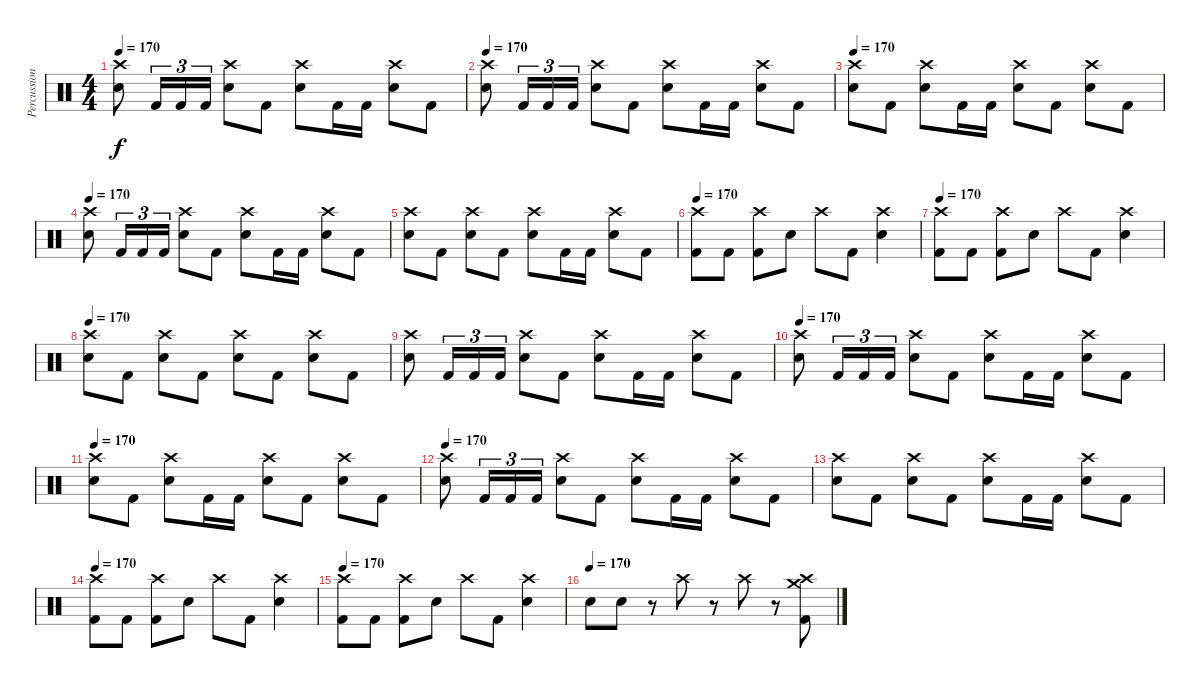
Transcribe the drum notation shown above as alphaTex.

\track ("Percussion" "Percussion") {instrument percussion}
\staff {score}
\articulation defaults
\ts (4 4)
\tempo 170
\clef neutral
\ks c
("Crash high (hit)" "Electric Snare (hit)").8{dy f} "Kick (hit) 2".16{tu (3 2)} "Kick (hit) 2".16{tu (3 2)} "Kick (hit) 2".16{tu (3 2)} ("Crash high (hit)" "Electric Snare (hit)").8 "Kick (hit) 2".8 ("Crash high (hit)" "Electric Snare (hit)").8 "Kick (hit) 2".16 "Kick (hit) 2".16 ("Crash high (hit)" "Electric Snare (hit)").8 "Kick (hit) 2".8 |
\tempo 170
("Crash high (hit)" "Electric Snare (hit)").8 "Kick (hit) 2".16{tu (3 2)} "Kick (hit) 2".16{tu (3 2)} "Kick (hit) 2".16{tu (3 2)} ("Crash high (hit)" "Electric Snare (hit)").8 "Kick (hit) 2".8 ("Crash high (hit)" "Electric Snare (hit)").8 "Kick (hit) 2".16 "Kick (hit) 2".16 ("Crash high (hit)" "Electric Snare (hit)").8 "Kick (hit) 2".8 |
\tempo 170
("Crash high (hit)" "Electric Snare (hit)").8 "Kick (hit) 2".8 ("Crash high (hit)" "Electric Snare (hit)").8 "Kick (hit) 2".16 "Kick (hit) 2".16 ("Crash high (hit)" "Electric Snare (hit)").8 "Kick (hit) 2".8 ("Crash high (hit)" "Electric Snare (hit)").8 "Kick (hit) 2".8 |
\tempo 170
("Crash high (hit)" "Electric Snare (hit)").8 "Kick (hit) 2".16{tu (3 2)} "Kick (hit) 2".16{tu (3 2)} "Kick (hit) 2".16{tu (3 2)} ("Crash high (hit)" "Electric Snare (hit)").8 "Kick (hit) 2".8 ("Crash high (hit)" "Electric Snare (hit)").8 "Kick (hit) 2".16 "Kick (hit) 2".16 ("Crash high (hit)" "Electric Snare (hit)").8 "Kick (hit) 2".8 |
("Crash high (hit)" "Electric Snare (hit)").8 "Kick (hit) 2".8 ("Crash high (hit)" "Electric Snare (hit)").8 "Kick (hit) 2".8 ("Crash high (hit)" "Electric Snare (hit)").8 "Kick (hit) 2".16 "Kick (hit) 2".16 ("Crash high (hit)" "Electric Snare (hit)").8 "Kick (hit) 2".8 |
\tempo 170
("Crash high (hit)" "Kick (hit) 2").8 "Kick (hit) 2".8 ("Crash high (hit)" "Kick (hit) 2").8 "Electric Snare (hit)".8 "Crash high (hit)".8 "Kick (hit) 2".8 ("Crash high (hit)" "Electric Snare (hit)").4 |
\tempo 170
("Crash high (hit)" "Kick (hit) 2").8 "Kick (hit) 2".8 ("Crash high (hit)" "Kick (hit) 2").8 "Electric Snare (hit)".8 "Crash high (hit)".8 "Kick (hit) 2".8 ("Crash high (hit)" "Electric Snare (hit)").4 |
\tempo 170
("Crash high (hit)" "Electric Snare (hit)").8 "Kick (hit) 2".8 ("Crash high (hit)" "Electric Snare (hit)").8 "Kick (hit) 2".8 ("Crash high (hit)" "Electric Snare (hit)").8 "Kick (hit) 2".8 ("Crash high (hit)" "Electric Snare (hit)").8 "Kick (hit) 2".8 |
("Crash high (hit)" "Electric Snare (hit)").8 "Kick (hit) 2".16{tu (3 2)} "Kick (hit) 2".16{tu (3 2)} "Kick (hit) 2".16{tu (3 2)} ("Crash high (hit)" "Electric Snare (hit)").8 "Kick (hit) 2".8 ("Crash high (hit)" "Electric Snare (hit)").8 "Kick (hit) 2".16 "Kick (hit) 2".16 ("Crash high (hit)" "Electric Snare (hit)").8 "Kick (hit) 2".8 |
\tempo 170
("Crash high (hit)" "Electric Snare (hit)").8 "Kick (hit) 2".16{tu (3 2)} "Kick (hit) 2".16{tu (3 2)} "Kick (hit) 2".16{tu (3 2)} ("Crash high (hit)" "Electric Snare (hit)").8 "Kick (hit) 2".8 ("Crash high (hit)" "Electric Snare (hit)").8 "Kick (hit) 2".16 "Kick (hit) 2".16 ("Crash high (hit)" "Electric Snare (hit)").8 "Kick (hit) 2".8 |
\tempo 170
("Crash high (hit)" "Electric Snare (hit)").8 "Kick (hit) 2".8 ("Crash high (hit)" "Electric Snare (hit)").8 "Kick (hit) 2".16 "Kick (hit) 2".16 ("Crash high (hit)" "Electric Snare (hit)").8 "Kick (hit) 2".8 ("Crash high (hit)" "Electric Snare (hit)").8 "Kick (hit) 2".8 |
\tempo 170
("Crash high (hit)" "Electric Snare (hit)").8 "Kick (hit) 2".16{tu (3 2)} "Kick (hit) 2".16{tu (3 2)} "Kick (hit) 2".16{tu (3 2)} ("Crash high (hit)" "Electric Snare (hit)").8 "Kick (hit) 2".8 ("Crash high (hit)" "Electric Snare (hit)").8 "Kick (hit) 2".16 "Kick (hit) 2".16 ("Crash high (hit)" "Electric Snare (hit)").8 "Kick (hit) 2".8 |
("Crash high (hit)" "Electric Snare (hit)").8 "Kick (hit) 2".8 ("Crash high (hit)" "Electric Snare (hit)").8 "Kick (hit) 2".8 ("Crash high (hit)" "Electric Snare (hit)").8 "Kick (hit) 2".16 "Kick (hit) 2".16 ("Crash high (hit)" "Electric Snare (hit)").8 "Kick (hit) 2".8 |
\tempo 170
("Crash high (hit)" "Kick (hit) 2").8 "Kick (hit) 2".8 ("Crash high (hit)" "Kick (hit) 2").8 "Electric Snare (hit)".8 "Crash high (hit)".8 "Kick (hit) 2".8 ("Crash high (hit)" "Electric Snare (hit)").4 |
\tempo 170
("Crash high (hit)" "Kick (hit) 2").8 "Kick (hit) 2".8 ("Crash high (hit)" "Kick (hit) 2").8 "Electric Snare (hit)".8 "Crash high (hit)".8 "Kick (hit) 2".8 ("Crash high (hit)" "Electric Snare (hit)").4 |
\tempo (170)
"Electric Snare (hit)".8 "Electric Snare (hit)".8 r.8 "Crash high (hit)".8 r.8 "Crash high (hit)".8 r.8 ("Crash high (hit)" "Crash medium (hit)" "Kick (hit) 2").8
